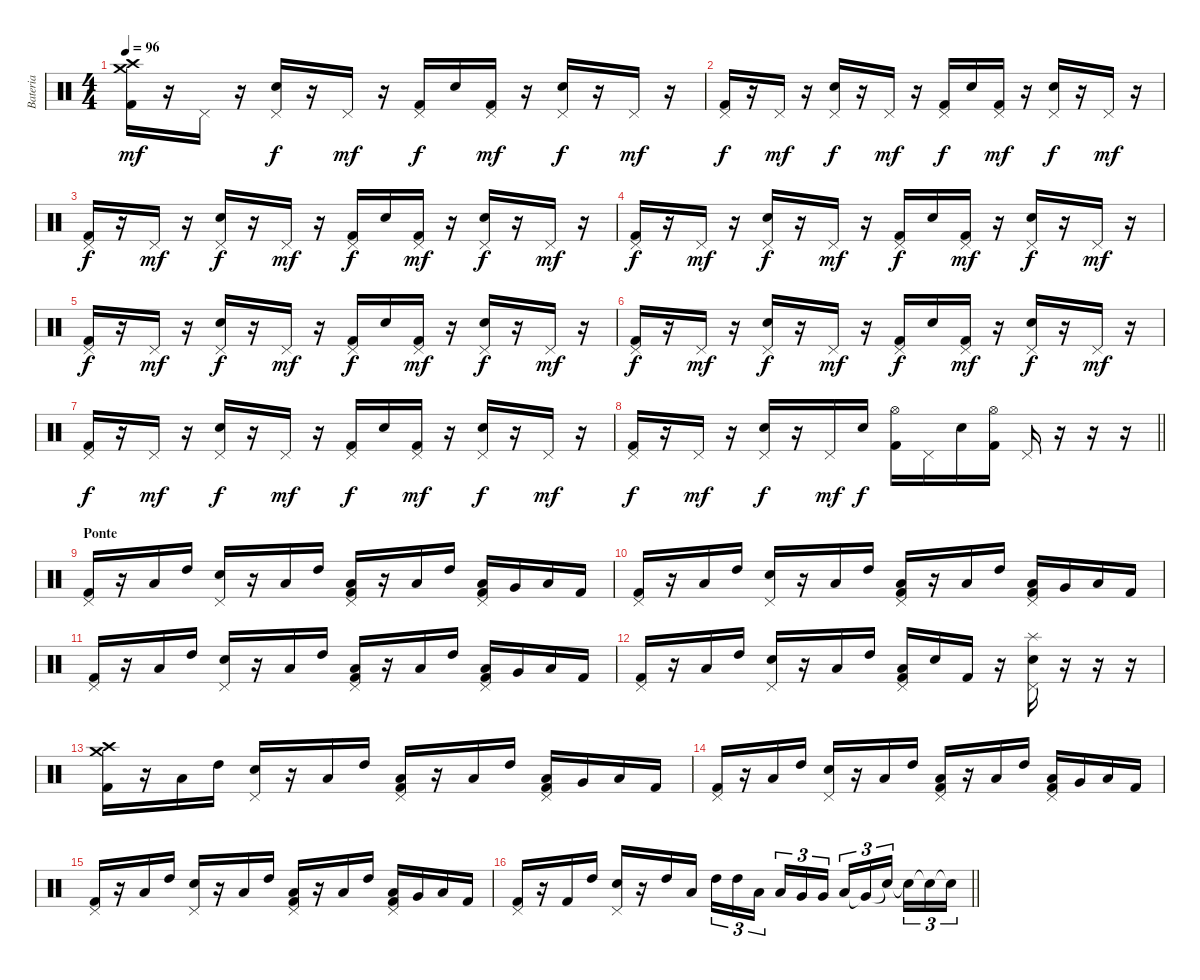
\track ("Bateria" "Bateria") {instrument percussion}
\staff {score}
\articulation defaults
\ts (4 4)
\tempo 96
\clef neutral
\ks c
("Crash medium (hit)" "Crash high (hit)" "Kick (hit) 2").16{dy mf} r.16 "Pedal Hi-Hat (hit)".16 r.16 ("Pedal Hi-Hat (hit)" "Electric Snare (hit)").16{dy f} r.16 "Pedal Hi-Hat (hit)".16{dy mf} r.16 ("Pedal Hi-Hat (hit)" "Kick (hit) 2").16{dy f} "Electric Snare (hit)".16 ("Pedal Hi-Hat (hit)" "Kick (hit) 2").16{dy mf} r.16 ("Pedal Hi-Hat (hit)" "Electric Snare (hit)").16{dy f} r.16 "Pedal Hi-Hat (hit)".16{dy mf} r.16 |
("Pedal Hi-Hat (hit)" "Kick (hit) 2").16{dy f} r.16 "Pedal Hi-Hat (hit)".16{dy mf} r.16 ("Pedal Hi-Hat (hit)" "Electric Snare (hit)").16{dy f} r.16 "Pedal Hi-Hat (hit)".16{dy mf} r.16 ("Pedal Hi-Hat (hit)" "Kick (hit) 2").16{dy f} "Electric Snare (hit)".16 ("Pedal Hi-Hat (hit)" "Kick (hit) 2").16{dy mf} r.16 ("Pedal Hi-Hat (hit)" "Electric Snare (hit)").16{dy f} r.16 "Pedal Hi-Hat (hit)".16{dy mf} r.16 |
("Pedal Hi-Hat (hit)" "Kick (hit) 2").16{dy f} r.16 "Pedal Hi-Hat (hit)".16{dy mf} r.16 ("Pedal Hi-Hat (hit)" "Electric Snare (hit)").16{dy f} r.16 "Pedal Hi-Hat (hit)".16{dy mf} r.16 ("Pedal Hi-Hat (hit)" "Kick (hit) 2").16{dy f} "Electric Snare (hit)".16 ("Pedal Hi-Hat (hit)" "Kick (hit) 2").16{dy mf} r.16 ("Pedal Hi-Hat (hit)" "Electric Snare (hit)").16{dy f} r.16 "Pedal Hi-Hat (hit)".16{dy mf} r.16 |
("Pedal Hi-Hat (hit)" "Kick (hit) 2").16{dy f} r.16 "Pedal Hi-Hat (hit)".16{dy mf} r.16 ("Pedal Hi-Hat (hit)" "Electric Snare (hit)").16{dy f} r.16 "Pedal Hi-Hat (hit)".16{dy mf} r.16 ("Pedal Hi-Hat (hit)" "Kick (hit) 2").16{dy f} "Electric Snare (hit)".16 ("Pedal Hi-Hat (hit)" "Kick (hit) 2").16{dy mf} r.16 ("Pedal Hi-Hat (hit)" "Electric Snare (hit)").16{dy f} r.16 "Pedal Hi-Hat (hit)".16{dy mf} r.16 |
("Pedal Hi-Hat (hit)" "Kick (hit) 2").16{dy f} r.16 "Pedal Hi-Hat (hit)".16{dy mf} r.16 ("Pedal Hi-Hat (hit)" "Electric Snare (hit)").16{dy f} r.16 "Pedal Hi-Hat (hit)".16{dy mf} r.16 ("Pedal Hi-Hat (hit)" "Kick (hit) 2").16{dy f} "Electric Snare (hit)".16 ("Pedal Hi-Hat (hit)" "Kick (hit) 2").16{dy mf} r.16 ("Pedal Hi-Hat (hit)" "Electric Snare (hit)").16{dy f} r.16 "Pedal Hi-Hat (hit)".16{dy mf} r.16 |
("Pedal Hi-Hat (hit)" "Kick (hit) 2").16{dy f} r.16 "Pedal Hi-Hat (hit)".16{dy mf} r.16 ("Pedal Hi-Hat (hit)" "Electric Snare (hit)").16{dy f} r.16 "Pedal Hi-Hat (hit)".16{dy mf} r.16 ("Pedal Hi-Hat (hit)" "Kick (hit) 2").16{dy f} "Electric Snare (hit)".16 ("Pedal Hi-Hat (hit)" "Kick (hit) 2").16{dy mf} r.16 ("Pedal Hi-Hat (hit)" "Electric Snare (hit)").16{dy f} r.16 "Pedal Hi-Hat (hit)".16{dy mf} r.16 |
("Pedal Hi-Hat (hit)" "Kick (hit) 2").16{dy f} r.16 "Pedal Hi-Hat (hit)".16{dy mf} r.16 ("Pedal Hi-Hat (hit)" "Electric Snare (hit)").16{dy f} r.16 "Pedal Hi-Hat (hit)".16{dy mf} r.16 ("Pedal Hi-Hat (hit)" "Kick (hit) 2").16{dy f} "Electric Snare (hit)".16 ("Pedal Hi-Hat (hit)" "Kick (hit) 2").16{dy mf} r.16 ("Pedal Hi-Hat (hit)" "Electric Snare (hit)").16{dy f} r.16 "Pedal Hi-Hat (hit)".16{dy mf} r.16 |
\barLineRight lightlight
("Pedal Hi-Hat (hit)" "Kick (hit) 2").16{dy f} r.16 "Pedal Hi-Hat (hit)".16{dy mf} r.16 ("Pedal Hi-Hat (hit)" "Electric Snare (hit)").16{dy f} r.16 "Pedal Hi-Hat (hit)".16{dy mf} "Electric Snare (hit)".16{dy f} ("Hi-Hat (open)" "Kick (hit) 2").16 "Pedal Hi-Hat (hit)".16 "Electric Snare (hit)".16 ("Hi-Hat (open)" "Kick (hit) 2").16 "Pedal Hi-Hat (hit)".16 r.16 r.16 r.16 |
\section ("" "Ponte")
("Pedal Hi-Hat (hit)" "Kick (hit) 2").16 r.16 "Low Tom (hit)".16 "High Tom (hit)".16 ("Pedal Hi-Hat (hit)" "Electric Snare (hit)").16 r.16 "Low Tom (hit)".16 "High Tom (hit)".16 ("Pedal Hi-Hat (hit)" "Low Tom (hit)" "Kick (hit) 2").16 r.16 "Low Tom (hit)".16 "High Tom (hit)".16 ("Pedal Hi-Hat (hit)" "Low Tom (hit)" "Kick (hit) 2").16 "Very Low Tom (hit)".16 "Low Floor Tom (hit)".16 "Kick (hit) 2".16 |
("Pedal Hi-Hat (hit)" "Kick (hit) 2").16 r.16 "Low Tom (hit)".16 "High Tom (hit)".16 ("Pedal Hi-Hat (hit)" "Electric Snare (hit)").16 r.16 "Low Tom (hit)".16 "High Tom (hit)".16 ("Pedal Hi-Hat (hit)" "Low Tom (hit)" "Kick (hit) 2").16 r.16 "Low Tom (hit)".16 "High Tom (hit)".16 ("Pedal Hi-Hat (hit)" "Low Tom (hit)" "Kick (hit) 2").16 "Very Low Tom (hit)".16 "Low Floor Tom (hit)".16 "Kick (hit) 2".16 |
("Pedal Hi-Hat (hit)" "Kick (hit) 2").16 r.16 "Low Tom (hit)".16 "High Tom (hit)".16 ("Pedal Hi-Hat (hit)" "Electric Snare (hit)").16 r.16 "Low Tom (hit)".16 "High Tom (hit)".16 ("Pedal Hi-Hat (hit)" "Low Tom (hit)" "Kick (hit) 2").16 r.16 "Low Tom (hit)".16 "High Tom (hit)".16 ("Pedal Hi-Hat (hit)" "Low Tom (hit)" "Kick (hit) 2").16 "Very Low Tom (hit)".16 "Low Floor Tom (hit)".16 "Kick (hit) 2".16 |
("Pedal Hi-Hat (hit)" "Kick (hit) 2").16 r.16 "Low Tom (hit)".16 "High Tom (hit)".16 ("Pedal Hi-Hat (hit)" "Electric Snare (hit)").16 r.16 "Low Tom (hit)".16 "High Tom (hit)".16 ("Pedal Hi-Hat (hit)" "Low Tom (hit)" "Kick (hit) 2").16 "Electric Snare (hit)".16 "Kick (hit) 2".16 r.16 ("Pedal Hi-Hat (hit)" "Splash (hit)" "Electric Snare (hit)").16 r.16 r.16 r.16 |
("Crash medium (hit)" "Crash high (hit)" "Kick (hit) 2").16 r.16 "Low Tom (hit)".16 "High Tom (hit)".16 ("Pedal Hi-Hat (hit)" "Electric Snare (hit)").16 r.16 "Low Tom (hit)".16 "High Tom (hit)".16 ("Pedal Hi-Hat (hit)" "Low Tom (hit)" "Kick (hit) 2").16 r.16 "Low Tom (hit)".16 "High Tom (hit)".16 ("Pedal Hi-Hat (hit)" "Low Tom (hit)" "Kick (hit) 2").16 "Very Low Tom (hit)".16 "Low Floor Tom (hit)".16 "Kick (hit) 2".16 |
("Pedal Hi-Hat (hit)" "Kick (hit) 2").16 r.16 "Low Tom (hit)".16 "High Tom (hit)".16 ("Pedal Hi-Hat (hit)" "Electric Snare (hit)").16 r.16 "Low Tom (hit)".16 "High Tom (hit)".16 ("Pedal Hi-Hat (hit)" "Low Tom (hit)" "Kick (hit) 2").16 r.16 "Low Tom (hit)".16 "High Tom (hit)".16 ("Pedal Hi-Hat (hit)" "Low Tom (hit)" "Kick (hit) 2").16 "Very Low Tom (hit)".16 "Low Floor Tom (hit)".16 "Kick (hit) 2".16 |
("Pedal Hi-Hat (hit)" "Kick (hit) 2").16 r.16 "Low Tom (hit)".16 "High Tom (hit)".16 ("Pedal Hi-Hat (hit)" "Electric Snare (hit)").16 r.16 "Low Tom (hit)".16 "High Tom (hit)".16 ("Pedal Hi-Hat (hit)" "Low Tom (hit)" "Kick (hit) 2").16 r.16 "Low Tom (hit)".16 "High Tom (hit)".16 ("Pedal Hi-Hat (hit)" "Low Tom (hit)" "Kick (hit) 2").16 "Very Low Tom (hit)".16 "Low Floor Tom (hit)".16 "Kick (hit) 2".16 |
\barLineRight lightlight
("Pedal Hi-Hat (hit)" "Kick (hit) 2").16 r.16 "Kick (hit) 2".16 "High Tom (hit)".16 ("Pedal Hi-Hat (hit)" "Electric Snare (hit)").16 r.16 "High Tom (hit)".16 "Low Tom (hit)".16 "High Tom (hit)".16{tu (3 2)} "High Tom (hit)".16{tu (3 2)} "Low Tom (hit)".16{tu (3 2) beam splitsecondary} "Low Tom (hit)".16{tu (3 2)} "Very Low Tom (hit)".16{tu (3 2)} "Very Low Tom (hit)".16{tu (3 2)} "Low Floor Tom (hit)".16{tu (3 2)} "Very Low Tom (hit)"{t}.16{tu (3 2)} "Snare (hit)"{t}.16{tu (3 2) beam splitsecondary} "Snare (hit)"{t}.16{tu (3 2)} "Snare (hit)"{t}.16{tu (3 2)} "Snare (hit)"{t}.16{tu (3 2)}
